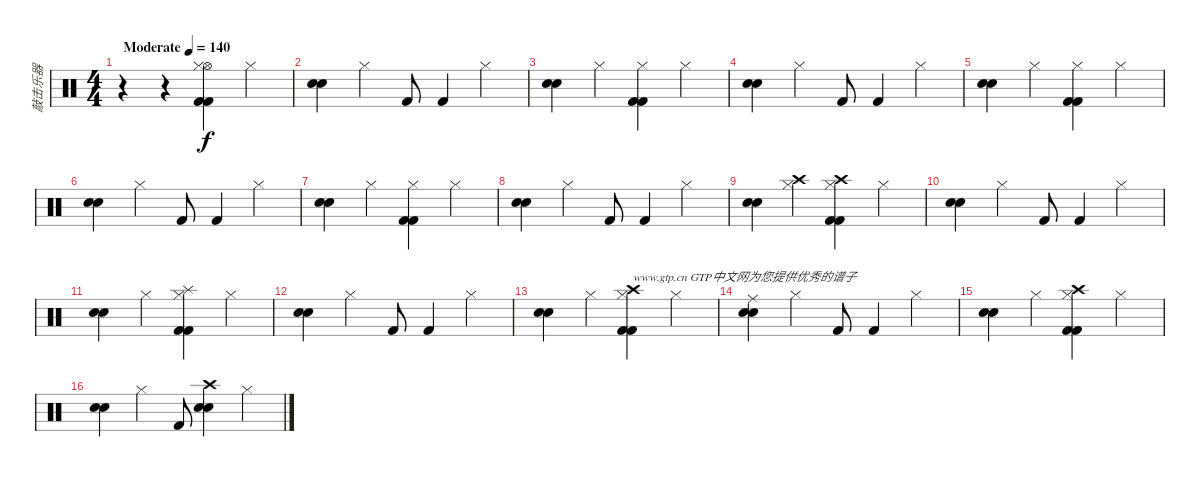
\track ("敲击乐器" "敲击乐器") {instrument percussion bank 3}
\staff {score}
\articulation defaults
\ts (4 4)
\tempo (140 "Moderate")
\clef neutral
\ks c
r.4{dy f} r.4 ("Kick (hit) 2" "Kick (hit) 2" "Hi-Hat (open)" "Hi-Hat (closed)").4 "Hi-Hat (closed)".4 |
("Hand Clap (hit)" "Snare (hit) 2").4 "Hi-Hat (closed)".4 "Kick (hit) 2".8 "Kick (hit) 2".4 "Hi-Hat (closed)".4 |
("Hand Clap (hit)" "Snare (hit) 2").4 "Hi-Hat (closed)".4 ("Kick (hit) 2" "Kick (hit) 2" "Hi-Hat (closed)").4 "Hi-Hat (closed)".4 |
("Hand Clap (hit)" "Snare (hit) 2").4 "Hi-Hat (closed)".4 "Kick (hit) 2".8 "Kick (hit) 2".4 "Hi-Hat (closed)".4 |
("Hand Clap (hit)" "Snare (hit) 2").4 "Hi-Hat (closed)".4 ("Kick (hit) 2" "Kick (hit) 2" "Hi-Hat (closed)").4 "Hi-Hat (closed)".4 |
("Hand Clap (hit)" "Snare (hit) 2").4 "Hi-Hat (closed)".4 "Kick (hit) 2".8 "Kick (hit) 2".4 "Hi-Hat (closed)".4 |
("Hand Clap (hit)" "Snare (hit) 2").4 "Hi-Hat (closed)".4 ("Kick (hit) 2" "Kick (hit) 2" "Hi-Hat (closed)").4 "Hi-Hat (closed)".4 |
("Hand Clap (hit)" "Snare (hit) 2").4 "Hi-Hat (closed)".4 "Kick (hit) 2".8 "Kick (hit) 2".4 "Hi-Hat (closed)".4 |
("Hand Clap (hit)" "Snare (hit) 2").4 ("Crash high (hit)" "Hi-Hat (closed)").4 ("Kick (hit) 2" "Crash high (hit)" "Kick (hit) 2" "Hi-Hat (closed)").4 "Hi-Hat (closed)".4 |
("Hand Clap (hit)" "Snare (hit) 2").4 "Hi-Hat (closed)".4 "Kick (hit) 2".8 "Kick (hit) 2".4 "Hi-Hat (closed)".4 |
("Hand Clap (hit)" "Snare (hit) 2").4 "Hi-Hat (closed)".4 ("Kick (hit) 2" "Kick (hit) 2" "Splash (hit)" "Hi-Hat (closed)").4 "Hi-Hat (closed)".4 |
("Hand Clap (hit)" "Snare (hit) 2").4 "Hi-Hat (closed)".4 "Kick (hit) 2".8 "Kick (hit) 2".4 "Hi-Hat (closed)".4 |
("Hand Clap (hit)" "Snare (hit) 2").4 "Hi-Hat (closed)".4 ("Kick (hit) 2" "Kick (hit) 2" "Crash high (hit)" "Hi-Hat (closed)").4{txt "www.gtp.cn GTP中文网为您提供优秀的谱子"} "Hi-Hat (closed)".4 |
("Ride (middle)" "Hand Clap (hit)" "Snare (hit) 2").4 "Hi-Hat (closed)".4 "Kick (hit) 2".8 "Kick (hit) 2".4 "Hi-Hat (closed)".4 |
("Hand Clap (hit)" "Snare (hit) 2").4 "Hi-Hat (closed)".4 ("Kick (hit) 2" "Crash high (hit)" "Kick (hit) 2" "Hi-Hat (closed)").4 "Hi-Hat (closed)".4 |
("Hand Clap (hit)" "Snare (hit) 2").4 "Hi-Hat (closed)".4 "Kick (hit) 2".8 ("Crash high (hit)" "Hand Clap (hit)" "Snare (hit) 2").4 "Hi-Hat (closed)".4
